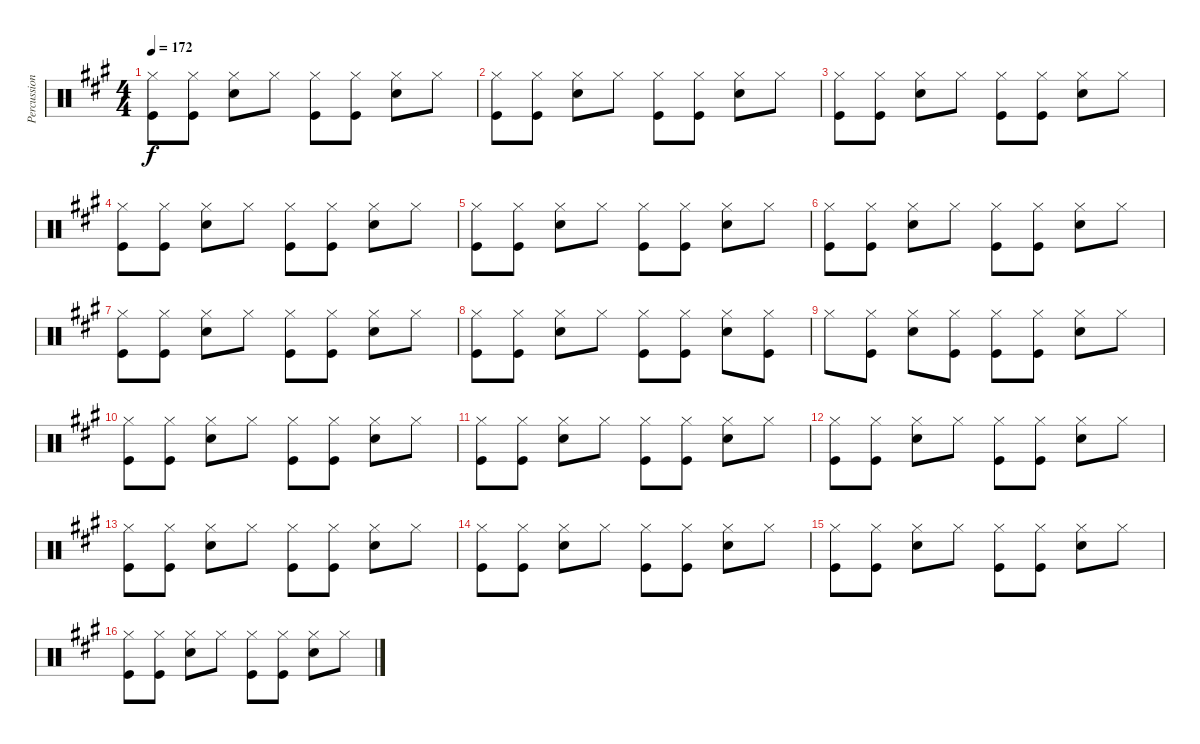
\track ("Percussion" "Percussion") {instrument percussion}
\staff {score}
\articulation defaults
\ts (4 4)
\tempo 172
\clef neutral
\ks a
("Hi-Hat (closed)" "Kick (hit)").8{dy f} ("Hi-Hat (closed)" "Kick (hit)").8 ("Hi-Hat (closed)" "Snare (hit) 2").8 "Hi-Hat (closed)".8 ("Hi-Hat (closed)" "Kick (hit)").8 ("Hi-Hat (closed)" "Kick (hit)").8 ("Hi-Hat (closed)" "Snare (hit) 2").8 "Hi-Hat (closed)".8 |
("Hi-Hat (closed)" "Kick (hit)").8 ("Hi-Hat (closed)" "Kick (hit)").8 ("Hi-Hat (closed)" "Snare (hit) 2").8 "Hi-Hat (closed)".8 ("Hi-Hat (closed)" "Kick (hit)").8 ("Hi-Hat (closed)" "Kick (hit)").8 ("Hi-Hat (closed)" "Snare (hit) 2").8 "Hi-Hat (closed)".8 |
("Hi-Hat (closed)" "Kick (hit)").8 ("Hi-Hat (closed)" "Kick (hit)").8 ("Hi-Hat (closed)" "Snare (hit) 2").8 "Hi-Hat (closed)".8 ("Hi-Hat (closed)" "Kick (hit)").8 ("Hi-Hat (closed)" "Kick (hit)").8 ("Hi-Hat (closed)" "Snare (hit) 2").8 "Hi-Hat (closed)".8 |
("Hi-Hat (closed)" "Kick (hit)").8 ("Hi-Hat (closed)" "Kick (hit)").8 ("Hi-Hat (closed)" "Snare (hit) 2").8 "Hi-Hat (closed)".8 ("Hi-Hat (closed)" "Kick (hit)").8 ("Hi-Hat (closed)" "Kick (hit)").8 ("Hi-Hat (closed)" "Snare (hit) 2").8 "Hi-Hat (closed)".8 |
("Hi-Hat (closed)" "Kick (hit)").8 ("Hi-Hat (closed)" "Kick (hit)").8 ("Hi-Hat (closed)" "Snare (hit) 2").8 "Hi-Hat (closed)".8 ("Hi-Hat (closed)" "Kick (hit)").8 ("Hi-Hat (closed)" "Kick (hit)").8 ("Hi-Hat (closed)" "Snare (hit) 2").8 "Hi-Hat (closed)".8 |
("Hi-Hat (closed)" "Kick (hit)").8 ("Hi-Hat (closed)" "Kick (hit)").8 ("Hi-Hat (closed)" "Snare (hit) 2").8 "Hi-Hat (closed)".8 ("Hi-Hat (closed)" "Kick (hit)").8 ("Hi-Hat (closed)" "Kick (hit)").8 ("Hi-Hat (closed)" "Snare (hit) 2").8 "Hi-Hat (closed)".8 |
("Hi-Hat (closed)" "Kick (hit)").8 ("Hi-Hat (closed)" "Kick (hit)").8 ("Hi-Hat (closed)" "Snare (hit) 2").8 "Hi-Hat (closed)".8 ("Hi-Hat (closed)" "Kick (hit)").8 ("Hi-Hat (closed)" "Kick (hit)").8 ("Hi-Hat (closed)" "Snare (hit) 2").8 "Hi-Hat (closed)".8 |
("Hi-Hat (closed)" "Kick (hit)").8 ("Hi-Hat (closed)" "Kick (hit)").8 ("Hi-Hat (closed)" "Snare (hit) 2").8 "Hi-Hat (closed)".8 ("Hi-Hat (closed)" "Kick (hit)").8 ("Hi-Hat (closed)" "Kick (hit)").8 ("Hi-Hat (closed)" "Snare (hit) 2").8 ("Hi-Hat (closed)" "Kick (hit)").8 |
"Hi-Hat (closed)".8 ("Hi-Hat (closed)" "Kick (hit)").8 ("Hi-Hat (closed)" "Snare (hit) 2").8 ("Hi-Hat (closed)" "Kick (hit)").8 ("Hi-Hat (closed)" "Kick (hit)").8 ("Hi-Hat (closed)" "Kick (hit)").8 ("Hi-Hat (closed)" "Snare (hit) 2").8 "Hi-Hat (closed)".8 |
("Hi-Hat (closed)" "Kick (hit)").8 ("Hi-Hat (closed)" "Kick (hit)").8 ("Hi-Hat (closed)" "Snare (hit) 2").8 "Hi-Hat (closed)".8 ("Hi-Hat (closed)" "Kick (hit)").8 ("Hi-Hat (closed)" "Kick (hit)").8 ("Hi-Hat (closed)" "Snare (hit) 2").8 "Hi-Hat (closed)".8 |
("Hi-Hat (closed)" "Kick (hit)").8 ("Hi-Hat (closed)" "Kick (hit)").8 ("Hi-Hat (closed)" "Snare (hit) 2").8 "Hi-Hat (closed)".8 ("Hi-Hat (closed)" "Kick (hit)").8 ("Hi-Hat (closed)" "Kick (hit)").8 ("Hi-Hat (closed)" "Snare (hit) 2").8 "Hi-Hat (closed)".8 |
("Hi-Hat (closed)" "Kick (hit)").8 ("Hi-Hat (closed)" "Kick (hit)").8 ("Hi-Hat (closed)" "Snare (hit) 2").8 "Hi-Hat (closed)".8 ("Hi-Hat (closed)" "Kick (hit)").8 ("Hi-Hat (closed)" "Kick (hit)").8 ("Hi-Hat (closed)" "Snare (hit) 2").8 "Hi-Hat (closed)".8 |
("Hi-Hat (closed)" "Kick (hit)").8 ("Hi-Hat (closed)" "Kick (hit)").8 ("Hi-Hat (closed)" "Snare (hit) 2").8 "Hi-Hat (closed)".8 ("Hi-Hat (closed)" "Kick (hit)").8 ("Hi-Hat (closed)" "Kick (hit)").8 ("Hi-Hat (closed)" "Snare (hit) 2").8 "Hi-Hat (closed)".8 |
("Hi-Hat (closed)" "Kick (hit)").8 ("Hi-Hat (closed)" "Kick (hit)").8 ("Hi-Hat (closed)" "Snare (hit) 2").8 "Hi-Hat (closed)".8 ("Hi-Hat (closed)" "Kick (hit)").8 ("Hi-Hat (closed)" "Kick (hit)").8 ("Hi-Hat (closed)" "Snare (hit) 2").8 "Hi-Hat (closed)".8 |
("Hi-Hat (closed)" "Kick (hit)").8 ("Hi-Hat (closed)" "Kick (hit)").8 ("Hi-Hat (closed)" "Snare (hit) 2").8 "Hi-Hat (closed)".8 ("Hi-Hat (closed)" "Kick (hit)").8 ("Hi-Hat (closed)" "Kick (hit)").8 ("Hi-Hat (closed)" "Snare (hit) 2").8 "Hi-Hat (closed)".8 |
("Hi-Hat (closed)" "Kick (hit)").8 ("Hi-Hat (closed)" "Kick (hit)").8 ("Hi-Hat (closed)" "Snare (hit) 2").8 "Hi-Hat (closed)".8 ("Hi-Hat (closed)" "Kick (hit)").8 ("Hi-Hat (closed)" "Kick (hit)").8 ("Hi-Hat (closed)" "Snare (hit) 2").8 "Hi-Hat (closed)".8
